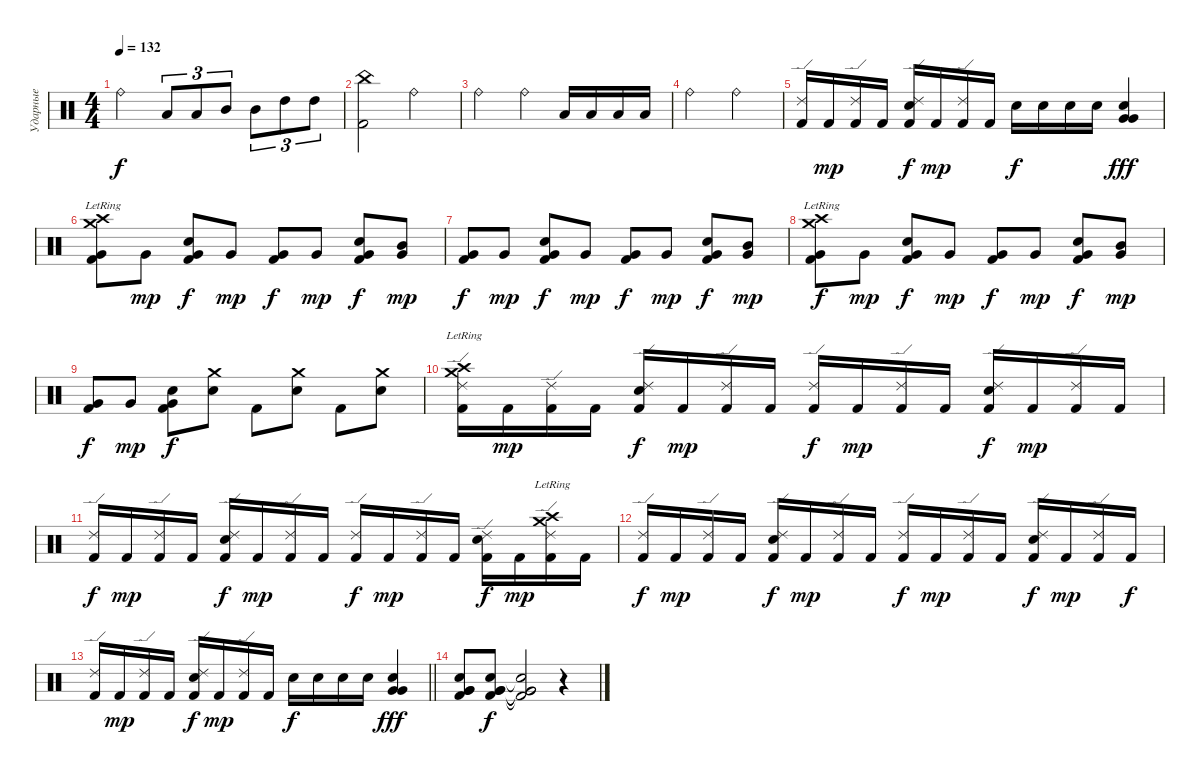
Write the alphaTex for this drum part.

\track ("Ударные" "Ударные") {instrument percussion}
\staff {score}
\articulation defaults
\ts (4 4)
\tempo 132
\clef neutral
\ks c "Ride (bell)".2{dy f} "Low Tom (hit)".8{tu (3 2)} "Low Tom (hit)".8{tu (3 2)} "Mid Tom (hit)".8{tu (3 2)} "Mid Tom (hit)".8{tu (3 2)} "High Tom (hit)".8{tu (3 2)} "High Tom (hit)".8{tu (3 2)}
|
("China (hit)" "Kick (hit) 2").2 "Ride (bell)".2 |
"Ride (bell)".2 "Ride (bell)".4 "Low Tom (hit)".16 "Low Tom (hit)".16 "Low Tom (hit)".16 "Low Tom (hit)".16 |
"Ride (bell)".2 "Ride (bell)".2 |
("Kick (hit) 2" "Ride (edge) 2").16 "Kick (hit) 2".16{dy mp} ("Kick (hit) 2" "Ride (edge) 2").16 "Kick (hit) 2".16 ("Electric Snare (hit)" "Kick (hit) 2" "Ride (edge) 2").16{dy f} "Kick (hit) 2".16{dy mp} ("Kick (hit) 2" "Ride (edge) 2").16 "Kick (hit) 2".16 "Electric Snare (hit)".16{dy f} "Electric Snare (hit)".16 "Electric Snare (hit)".16 "Electric Snare (hit)".16 ("Electric Snare (hit)" "Very Low Tom (hit)" "Very Low Tom (hit)").4{dy fff} |
("Crash medium (hit)" "Crash high (hit)"{lr} "Kick (hit) 2" "Very Low Tom (hit)").8 "Very Low Tom (hit)".8{dy mp} ("Electric Snare (hit)" "Kick (hit) 2" "Very Low Tom (hit)").8{dy f} "Very Low Tom (hit)".8{dy mp} ("Kick (hit) 2" "Very Low Tom (hit)").8{dy f} "Very Low Tom (hit)".8{dy mp} ("Electric Snare (hit)" "Kick (hit) 2" "Very Low Tom (hit)").8{dy f} ("Mid Tom (hit)" "Very Low Tom (hit)").8{dy mp} |
("Kick (hit) 2" "Very Low Tom (hit)").8{dy f} "Very Low Tom (hit)".8{dy mp} ("Electric Snare (hit)" "Kick (hit) 2" "Very Low Tom (hit)").8{dy f} "Very Low Tom (hit)".8{dy mp} ("Kick (hit) 2" "Very Low Tom (hit)").8{dy f} "Very Low Tom (hit)".8{dy mp} ("Electric Snare (hit)" "Kick (hit) 2" "Very Low Tom (hit)").8{dy f} ("Mid Tom (hit)" "Very Low Tom (hit)").8{dy mp} |
("Crash high (hit)"{lr} "Crash medium (hit)"{lr} "Kick (hit) 2" "Very Low Tom (hit)").8{dy f} "Very Low Tom (hit)".8{dy mp} ("Electric Snare (hit)" "Kick (hit) 2" "Very Low Tom (hit)").8{dy f} "Very Low Tom (hit)".8{dy mp} ("Kick (hit) 2" "Very Low Tom (hit)").8{dy f} "Very Low Tom (hit)".8{dy mp} ("Electric Snare (hit)" "Kick (hit) 2" "Very Low Tom (hit)").8{dy f} ("Mid Tom (hit)" "Very Low Tom (hit)").8{dy mp} |
("Kick (hit) 2" "Very Low Tom (hit)").8{dy f} "Very Low Tom (hit)".8{dy mp} ("Electric Snare (hit)" "Kick (hit) 2" "Very Low Tom (hit)").8{dy f} ("Crash medium (hit)" "Electric Snare (hit)").8 "Kick (hit) 2".8 ("Crash medium (hit)" "Electric Snare (hit)").8 "Kick (hit) 2".8 ("Crash medium (hit)" "Electric Snare (hit)").8 |
("Crash medium (hit)"{lr} "Crash high (hit)"{lr} "Kick (hit) 2" "Ride (edge) 2").16 "Kick (hit) 2".16{dy mp} ("Kick (hit) 2" "Ride (edge) 2").16 "Kick (hit) 2".16 ("Electric Snare (hit)" "Kick (hit) 2" "Ride (edge) 2").16{dy f} "Kick (hit) 2".16{dy mp} ("Kick (hit) 2" "Ride (edge) 2").16 "Kick (hit) 2".16 ("Kick (hit) 2" "Ride (edge) 2").16{dy f} "Kick (hit) 2".16{dy mp} ("Kick (hit) 2" "Ride (edge) 2").16 "Kick (hit) 2".16 ("Electric Snare (hit)" "Kick (hit) 2" "Ride (edge) 2").16{dy f} "Kick (hit) 2".16{dy mp} ("Kick (hit) 2" "Ride (edge) 2").16 "Kick (hit) 2".16 |
("Kick (hit) 2" "Ride (edge) 2").16{dy f} "Kick (hit) 2".16{dy mp} ("Kick (hit) 2" "Ride (edge) 2").16 "Kick (hit) 2".16 ("Electric Snare (hit)" "Kick (hit) 2" "Ride (edge) 2").16{dy f} "Kick (hit) 2".16{dy mp} ("Kick (hit) 2" "Ride (edge) 2").16 "Kick (hit) 2".16 ("Kick (hit) 2" "Ride (edge) 2").16{dy f} "Kick (hit) 2".16{dy mp} ("Kick (hit) 2" "Ride (edge) 2").16 "Kick (hit) 2".16 ("Electric Snare (hit)" "Kick (hit) 2" "Ride (edge) 2").16{dy f} "Kick (hit) 2".16{dy mp} ("Crash high (hit)"{lr} "Crash medium (hit)"{lr} "Kick (hit) 2" "Ride (edge) 2").16 "Kick (hit) 2".16 |
("Kick (hit) 2" "Ride (edge) 2").16{dy f} "Kick (hit) 2".16{dy mp} ("Kick (hit) 2" "Ride (edge) 2").16 "Kick (hit) 2".16 ("Electric Snare (hit)" "Kick (hit) 2" "Ride (edge) 2").16{dy f} "Kick (hit) 2".16{dy mp} ("Kick (hit) 2" "Ride (edge) 2").16 "Kick (hit) 2".16 ("Kick (hit) 2" "Ride (edge) 2").16{dy f} "Kick (hit) 2".16{dy mp} ("Kick (hit) 2" "Ride (edge) 2").16 "Kick (hit) 2".16 ("Electric Snare (hit)" "Kick (hit) 2" "Ride (edge) 2").16{dy f} "Kick (hit) 2".16{dy mp} ("Kick (hit) 2" "Ride (edge) 2").16 "Kick (hit) 2".16{dy f} |
\barLineRight lightlight
("Kick (hit) 2" "Ride (edge) 2").16 "Kick (hit) 2".16{dy mp} ("Kick (hit) 2" "Ride (edge) 2").16 "Kick (hit) 2".16 ("Electric Snare (hit)" "Kick (hit) 2" "Ride (edge) 2").16{dy f} "Kick (hit) 2".16{dy mp} ("Kick (hit) 2" "Ride (edge) 2").16 "Kick (hit) 2".16 "Electric Snare (hit)".16{dy f} "Electric Snare (hit)".16 "Electric Snare (hit)".16 "Electric Snare (hit)".16 ("Electric Snare (hit)" "Very Low Tom (hit)" "Very Low Tom (hit)").4{dy fff} |
("Very Low Tom (hit)" "Kick (hit) 2" "Electric Snare (hit)" "Very Low Tom (hit)").8 ("Very Low Tom (hit)" "Kick (hit) 2" "Electric Snare (hit)" "Very Low Tom (hit)").8{dy f} ("Very Low Tom (hit)"{t} "Kick (hit) 2"{t} "Electric Snare (hit)"{t} "Very Low Tom (hit)"{t}).2 r.4
